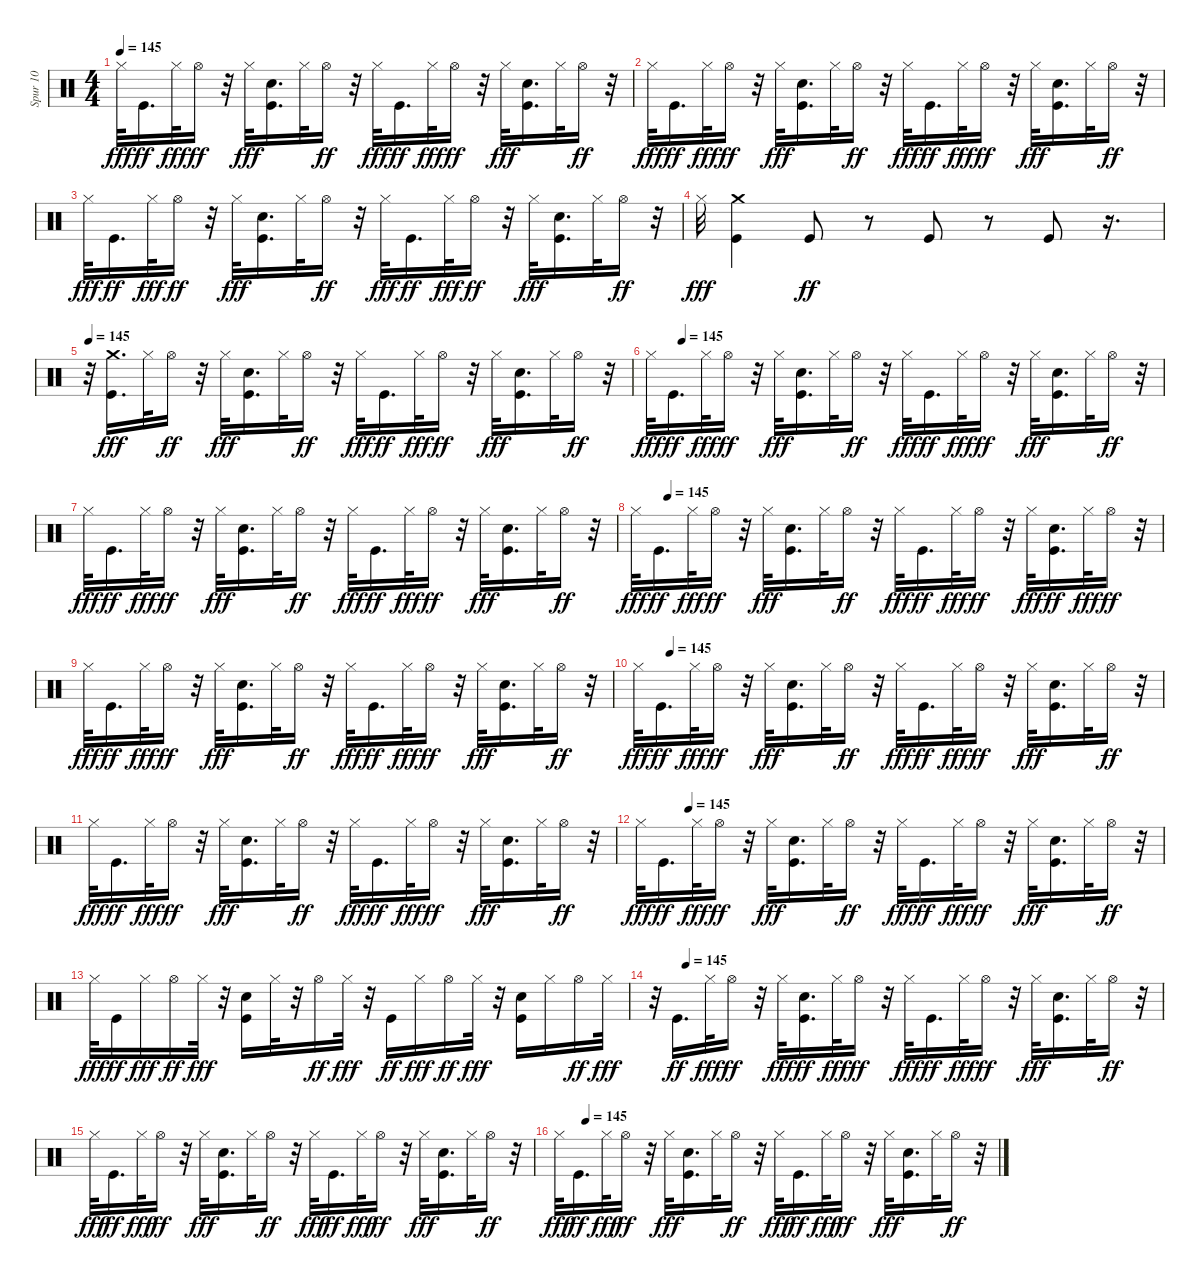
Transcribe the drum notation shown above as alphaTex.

\track ("Spur 10" "Spur 10") {instrument percussion}
\staff {score}
\articulation defaults
\ts (4 4)
\tempo 145
\clef neutral
\ks c "Hi-Hat (closed)".32{dy fff} "Kick (hit)".16{d dy ff} "Hi-Hat (closed)".32{dy fff} "Hi-Hat (open)".16{dy ff}
r.32 "Hi-Hat (closed)".32{dy fff} ("Kick (hit)" "Hand Clap (hit)").16{d} "Hi-Hat (closed)".32 "Hi-Hat (open)".16{dy ff} r.32 "Hi-Hat (closed)".32{dy fff} "Kick (hit)".16{d dy ff} "Hi-Hat (closed)".32{dy fff} "Hi-Hat (open)".16{dy ff} r.32 "Hi-Hat (closed)".32{dy fff} ("Kick (hit)" "Hand Clap (hit)").16{d} "Hi-Hat (closed)".32 "Hi-Hat (open)".16{dy ff} r.32 |
"Hi-Hat (closed)".32{dy fff} "Kick (hit)".16{d dy ff} "Hi-Hat (closed)".32{dy fff} "Hi-Hat (open)".16{dy ff} r.32 "Hi-Hat (closed)".32{dy fff} ("Kick (hit)" "Hand Clap (hit)").16{d} "Hi-Hat (closed)".32 "Hi-Hat (open)".16{dy ff} r.32 "Hi-Hat (closed)".32{dy fff} "Kick (hit)".16{d dy ff} "Hi-Hat (closed)".32{dy fff} "Hi-Hat (open)".16{dy ff} r.32 "Hi-Hat (closed)".32{dy fff} ("Kick (hit)" "Hand Clap (hit)").16{d} "Hi-Hat (closed)".32 "Hi-Hat (open)".16{dy ff} r.32 |
"Hi-Hat (closed)".32{dy fff} "Kick (hit)".16{d dy ff} "Hi-Hat (closed)".32{dy fff} "Hi-Hat (open)".16{dy ff} r.32 "Hi-Hat (closed)".32{dy fff} ("Kick (hit)" "Hand Clap (hit)").16{d} "Hi-Hat (closed)".32 "Hi-Hat (open)".16{dy ff} r.32 "Hi-Hat (closed)".32{dy fff} "Kick (hit)".16{d dy ff} "Hi-Hat (closed)".32{dy fff} "Hi-Hat (open)".16{dy ff} r.32 "Hi-Hat (closed)".32{dy fff} ("Kick (hit)" "Hand Clap (hit)").16{d} "Hi-Hat (closed)".32 "Hi-Hat (open)".16{dy ff} r.32 |
"Hi-Hat (closed)".32{dy fff} ("Kick (hit)" "Crash medium (hit)").4 "Kick (hit)".8{dy ff} r.8 "Kick (hit)".8 r.8 "Kick (hit)".8 r.16{d} |
\tempo 145
r.32 ("Kick (hit)" "Crash medium (hit)").16{d dy fff} "Hi-Hat (closed)".32 "Hi-Hat (open)".16{dy ff} r.32 "Hi-Hat (closed)".32{dy fff} ("Kick (hit)" "Hand Clap (hit)").16{d} "Hi-Hat (closed)".32 "Hi-Hat (open)".16{dy ff} r.32 "Hi-Hat (closed)".32{dy fff} "Kick (hit)".16{d dy ff} "Hi-Hat (closed)".32{dy fff} "Hi-Hat (open)".16{dy ff} r.32 "Hi-Hat (closed)".32{dy fff} ("Kick (hit)" "Hand Clap (hit)").16{d} "Hi-Hat (closed)".32 "Hi-Hat (open)".16{dy ff} r.32 |
\tempo (145 0.0625)
"Hi-Hat (closed)".32{dy fff} "Kick (hit)".16{d dy ff} "Hi-Hat (closed)".32{dy fff} "Hi-Hat (open)".16{dy ff} r.32 "Hi-Hat (closed)".32{dy fff} ("Kick (hit)" "Hand Clap (hit)").16{d} "Hi-Hat (closed)".32 "Hi-Hat (open)".16{dy ff} r.32 "Hi-Hat (closed)".32{dy fff} "Kick (hit)".16{d dy ff} "Hi-Hat (closed)".32{dy fff} "Hi-Hat (open)".16{dy ff} r.32 "Hi-Hat (closed)".32{dy fff} ("Kick (hit)" "Hand Clap (hit)").16{d} "Hi-Hat (closed)".32 "Hi-Hat (open)".16{dy ff} r.32 |
"Hi-Hat (closed)".32{dy fff} "Kick (hit)".16{d dy ff} "Hi-Hat (closed)".32{dy fff} "Hi-Hat (open)".16{dy ff} r.32 "Hi-Hat (closed)".32{dy fff} ("Kick (hit)" "Hand Clap (hit)").16{d} "Hi-Hat (closed)".32 "Hi-Hat (open)".16{dy ff} r.32 "Hi-Hat (closed)".32{dy fff} "Kick (hit)".16{d dy ff} "Hi-Hat (closed)".32{dy fff} "Hi-Hat (open)".16{dy ff} r.32 "Hi-Hat (closed)".32{dy fff} ("Kick (hit)" "Hand Clap (hit)").16{d} "Hi-Hat (closed)".32 "Hi-Hat (open)".16{dy ff} r.32 |
\tempo (145 0.0625)
"Hi-Hat (closed)".32{dy fff} "Kick (hit)".16{d dy ff} "Hi-Hat (closed)".32{dy fff} "Hi-Hat (open)".16{dy ff} r.32 "Hi-Hat (closed)".32{dy fff} ("Kick (hit)" "Hand Clap (hit)").16{d} "Hi-Hat (closed)".32 "Hi-Hat (open)".16{dy ff} r.32 "Hi-Hat (closed)".32{dy fff} "Kick (hit)".16{d dy ff} "Hi-Hat (closed)".32{dy fff} "Hi-Hat (open)".16{dy ff} r.32 "Hi-Hat (closed)".32{dy fff} ("Hand Clap (hit)" "Kick (hit)").16{d dy ff} "Hi-Hat (closed)".32{dy fff} "Hi-Hat (open)".16{dy ff} r.32 |
"Hi-Hat (closed)".32{dy fff} "Kick (hit)".16{d dy ff} "Hi-Hat (closed)".32{dy fff} "Hi-Hat (open)".16{dy ff} r.32 "Hi-Hat (closed)".32{dy fff} ("Kick (hit)" "Hand Clap (hit)").16{d} "Hi-Hat (closed)".32 "Hi-Hat (open)".16{dy ff} r.32 "Hi-Hat (closed)".32{dy fff} "Kick (hit)".16{d dy ff} "Hi-Hat (closed)".32{dy fff} "Hi-Hat (open)".16{dy ff} r.32 "Hi-Hat (closed)".32{dy fff} ("Kick (hit)" "Hand Clap (hit)").16{d} "Hi-Hat (closed)".32 "Hi-Hat (open)".16{dy ff} r.32 |
\tempo (145 0.0625)
"Hi-Hat (closed)".32{dy fff} "Kick (hit)".16{d dy ff} "Hi-Hat (closed)".32{dy fff} "Hi-Hat (open)".16{dy ff} r.32 "Hi-Hat (closed)".32{dy fff} ("Kick (hit)" "Hand Clap (hit)").16{d} "Hi-Hat (closed)".32 "Hi-Hat (open)".16{dy ff} r.32 "Hi-Hat (closed)".32{dy fff} "Kick (hit)".16{d dy ff} "Hi-Hat (closed)".32{dy fff} "Hi-Hat (open)".16{dy ff} r.32 "Hi-Hat (closed)".32{dy fff} ("Kick (hit)" "Hand Clap (hit)").16{d} "Hi-Hat (closed)".32 "Hi-Hat (open)".16{dy ff} r.32 |
"Hi-Hat (closed)".32{dy fff} "Kick (hit)".16{d dy ff} "Hi-Hat (closed)".32{dy fff} "Hi-Hat (open)".16{dy ff} r.32 "Hi-Hat (closed)".32{dy fff} ("Kick (hit)" "Hand Clap (hit)").16{d} "Hi-Hat (closed)".32 "Hi-Hat (open)".16{dy ff} r.32 "Hi-Hat (closed)".32{dy fff} "Kick (hit)".16{d dy ff} "Hi-Hat (closed)".32{dy fff} "Hi-Hat (open)".16{dy ff} r.32 "Hi-Hat (closed)".32{dy fff} ("Kick (hit)" "Hand Clap (hit)").16{d} "Hi-Hat (closed)".32 "Hi-Hat (open)".16{dy ff} r.32 |
\tempo (145 0.09375)
"Hi-Hat (closed)".32{dy fff} "Kick (hit)".16{d dy ff} "Hi-Hat (closed)".32{dy fff} "Hi-Hat (open)".16{dy ff} r.32 "Hi-Hat (closed)".32{dy fff} ("Kick (hit)" "Hand Clap (hit)").16{d} "Hi-Hat (closed)".32 "Hi-Hat (open)".16{dy ff} r.32 "Hi-Hat (closed)".32{dy fff} "Kick (hit)".16{d dy ff} "Hi-Hat (closed)".32{dy fff} "Hi-Hat (open)".16{dy ff} r.32 "Hi-Hat (closed)".32{dy fff} ("Kick (hit)" "Hand Clap (hit)").16{d} "Hi-Hat (closed)".32 "Hi-Hat (open)".16{dy ff} r.32 |
"Hi-Hat (closed)".32{dy fff} "Kick (hit)".16{dy ff} "Hi-Hat (closed)".16{dy fff} "Hi-Hat (open)".16{dy ff} "Hi-Hat (closed)".32{dy fff} r.32 ("Kick (hit)" "Hand Clap (hit)").16 "Hi-Hat (closed)".32 r.32 "Hi-Hat (open)".16{dy ff} "Hi-Hat (closed)".32{dy fff} r.32 "Kick (hit)".16{dy ff} "Hi-Hat (closed)".16{dy fff} "Hi-Hat (open)".16{dy ff} "Hi-Hat (closed)".32{dy fff} r.32 ("Kick (hit)" "Hand Clap (hit)").16 "Hi-Hat (closed)".16 "Hi-Hat (open)".16{dy ff} "Hi-Hat (closed)".32{dy fff} |
\tempo (145 0.0625)
r.32 "Kick (hit)".16{d dy ff} "Hi-Hat (closed)".32{dy fff} "Hi-Hat (open)".16{dy ff} r.32 "Hi-Hat (closed)".32{dy fff} ("Hand Clap (hit)" "Kick (hit)").16{d dy ff} "Hi-Hat (closed)".32{dy fff} "Hi-Hat (open)".16{dy ff} r.32 "Hi-Hat (closed)".32{dy fff} "Kick (hit)".16{d dy ff} "Hi-Hat (closed)".32{dy fff} "Hi-Hat (open)".16{dy ff} r.32 "Hi-Hat (closed)".32{dy fff} ("Kick (hit)" "Hand Clap (hit)").16{d} "Hi-Hat (closed)".32 "Hi-Hat (open)".16{dy ff} r.32 |
"Hi-Hat (closed)".32{dy fff} "Kick (hit)".16{d dy ff} "Hi-Hat (closed)".32{dy fff} "Hi-Hat (open)".16{dy ff} r.32 "Hi-Hat (closed)".32{dy fff} ("Kick (hit)" "Hand Clap (hit)").16{d} "Hi-Hat (closed)".32 "Hi-Hat (open)".16{dy ff} r.32 "Hi-Hat (closed)".32{dy fff} "Kick (hit)".16{d dy ff} "Hi-Hat (closed)".32{dy fff} "Hi-Hat (open)".16{dy ff} r.32 "Hi-Hat (closed)".32{dy fff} ("Kick (hit)" "Hand Clap (hit)").16{d} "Hi-Hat (closed)".32 "Hi-Hat (open)".16{dy ff} r.32 |
\tempo (145 0.0625)
"Hi-Hat (closed)".32{dy fff} "Kick (hit)".16{d dy ff} "Hi-Hat (closed)".32{dy fff} "Hi-Hat (open)".16{dy ff} r.32 "Hi-Hat (closed)".32{dy fff} ("Kick (hit)" "Hand Clap (hit)").16{d} "Hi-Hat (closed)".32 "Hi-Hat (open)".16{dy ff} r.32 "Hi-Hat (closed)".32{dy fff} "Kick (hit)".16{d dy ff} "Hi-Hat (closed)".32{dy fff} "Hi-Hat (open)".16{dy ff} r.32 "Hi-Hat (closed)".32{dy fff} ("Kick (hit)" "Hand Clap (hit)").16{d} "Hi-Hat (closed)".32 "Hi-Hat (open)".16{dy ff} r.32
